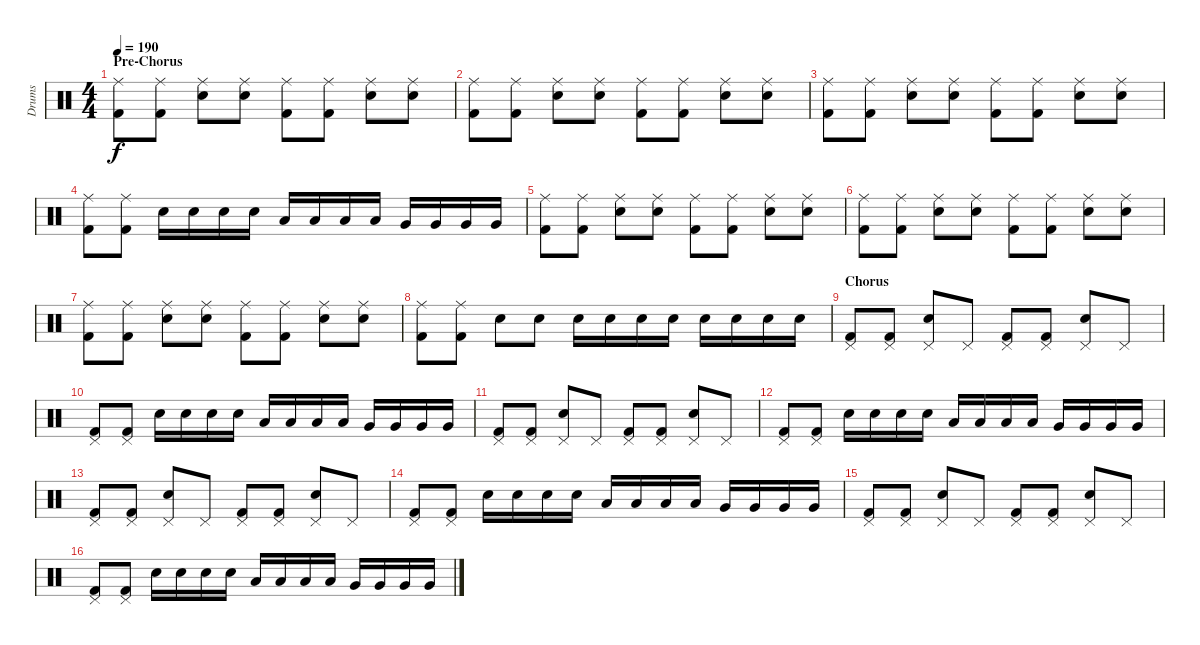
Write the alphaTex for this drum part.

\track ("Drums" "Drums") {instrument percussion}
\staff {score}
\articulation defaults
\ts (4 4)
\section ("" "Pre-Chorus")
\tempo 190
\clef neutral
\ks c
("Kick (hit) 2" "Ride (middle)").8{dy f} ("Kick (hit) 2" "Ride (middle)").8 ("Electric Snare (hit)" "Ride (middle)").8 ("Electric Snare (hit)" "Ride (middle)").8 ("Kick (hit) 2" "Ride (middle)").8 ("Kick (hit) 2" "Ride (middle)").8 ("Electric Snare (hit)" "Ride (middle)").8 ("Electric Snare (hit)" "Ride (middle)").8 |
("Kick (hit) 2" "Ride (middle)").8 ("Kick (hit) 2" "Ride (middle)").8 ("Electric Snare (hit)" "Ride (middle)").8 ("Electric Snare (hit)" "Ride (middle)").8 ("Kick (hit) 2" "Ride (middle)").8 ("Kick (hit) 2" "Ride (middle)").8 ("Electric Snare (hit)" "Ride (middle)").8 ("Electric Snare (hit)" "Ride (middle)").8 |
("Kick (hit) 2" "Ride (middle)").8 ("Kick (hit) 2" "Ride (middle)").8 ("Electric Snare (hit)" "Ride (middle)").8 ("Electric Snare (hit)" "Ride (middle)").8 ("Kick (hit) 2" "Ride (middle)").8 ("Kick (hit) 2" "Ride (middle)").8 ("Electric Snare (hit)" "Ride (middle)").8 ("Electric Snare (hit)" "Ride (middle)").8 |
("Kick (hit) 2" "Ride (middle)").8 ("Kick (hit) 2" "Ride (middle)").8 "Electric Snare (hit)".16 "Electric Snare (hit)".16 "Electric Snare (hit)".16 "Electric Snare (hit)".16 "Low Floor Tom (hit)".16 "Low Floor Tom (hit)".16 "Low Floor Tom (hit)".16 "Low Floor Tom (hit)".16 "Very Low Tom (hit)".16 "Very Low Tom (hit)".16 "Very Low Tom (hit)".16 "Very Low Tom (hit)".16 |
("Kick (hit) 2" "Ride (middle)").8 ("Kick (hit) 2" "Ride (middle)").8 ("Electric Snare (hit)" "Ride (middle)").8 ("Electric Snare (hit)" "Ride (middle)").8 ("Kick (hit) 2" "Ride (middle)").8 ("Kick (hit) 2" "Ride (middle)").8 ("Electric Snare (hit)" "Ride (middle)").8 ("Electric Snare (hit)" "Ride (middle)").8 |
("Kick (hit) 2" "Ride (middle)").8 ("Kick (hit) 2" "Ride (middle)").8 ("Electric Snare (hit)" "Ride (middle)").8 ("Electric Snare (hit)" "Ride (middle)").8 ("Kick (hit) 2" "Ride (middle)").8 ("Kick (hit) 2" "Ride (middle)").8 ("Electric Snare (hit)" "Ride (middle)").8 ("Electric Snare (hit)" "Ride (middle)").8 |
("Kick (hit) 2" "Ride (middle)").8 ("Kick (hit) 2" "Ride (middle)").8 ("Electric Snare (hit)" "Ride (middle)").8 ("Electric Snare (hit)" "Ride (middle)").8 ("Kick (hit) 2" "Ride (middle)").8 ("Kick (hit) 2" "Ride (middle)").8 ("Electric Snare (hit)" "Ride (middle)").8 ("Electric Snare (hit)" "Ride (middle)").8 |
("Kick (hit) 2" "Ride (middle)").8 ("Kick (hit) 2" "Ride (middle)").8 "Electric Snare (hit)".8 "Electric Snare (hit)".8 "Electric Snare (hit)".16 "Electric Snare (hit)".16 "Electric Snare (hit)".16 "Electric Snare (hit)".16 "Electric Snare (hit)".16 "Electric Snare (hit)".16 "Electric Snare (hit)".16 "Electric Snare (hit)".16 |
\section ("" "Chorus")
("Kick (hit) 2" "Pedal Hi-Hat (hit)").8 ("Kick (hit) 2" "Pedal Hi-Hat (hit)").8 ("Electric Snare (hit)" "Pedal Hi-Hat (hit)").8 "Pedal Hi-Hat (hit)".8 ("Kick (hit) 2" "Pedal Hi-Hat (hit)").8 ("Kick (hit) 2" "Pedal Hi-Hat (hit)").8 ("Electric Snare (hit)" "Pedal Hi-Hat (hit)").8 "Pedal Hi-Hat (hit)".8 |
("Kick (hit) 2" "Pedal Hi-Hat (hit)").8 ("Kick (hit) 2" "Pedal Hi-Hat (hit)").8 "Electric Snare (hit)".16 "Electric Snare (hit)".16 "Electric Snare (hit)".16 "Electric Snare (hit)".16 "Low Floor Tom (hit)".16 "Low Floor Tom (hit)".16 "Low Floor Tom (hit)".16 "Low Floor Tom (hit)".16 "Very Low Tom (hit)".16 "Very Low Tom (hit)".16 "Very Low Tom (hit)".16 "Very Low Tom (hit)".16 |
("Kick (hit) 2" "Pedal Hi-Hat (hit)").8 ("Kick (hit) 2" "Pedal Hi-Hat (hit)").8 ("Electric Snare (hit)" "Pedal Hi-Hat (hit)").8 "Pedal Hi-Hat (hit)".8 ("Kick (hit) 2" "Pedal Hi-Hat (hit)").8 ("Kick (hit) 2" "Pedal Hi-Hat (hit)").8 ("Electric Snare (hit)" "Pedal Hi-Hat (hit)").8 "Pedal Hi-Hat (hit)".8 |
("Kick (hit) 2" "Pedal Hi-Hat (hit)").8 ("Kick (hit) 2" "Pedal Hi-Hat (hit)").8 "Electric Snare (hit)".16 "Electric Snare (hit)".16 "Electric Snare (hit)".16 "Electric Snare (hit)".16 "Low Floor Tom (hit)".16 "Low Floor Tom (hit)".16 "Low Floor Tom (hit)".16 "Low Floor Tom (hit)".16 "Very Low Tom (hit)".16 "Very Low Tom (hit)".16 "Very Low Tom (hit)".16 "Very Low Tom (hit)".16 |
("Kick (hit) 2" "Pedal Hi-Hat (hit)").8 ("Kick (hit) 2" "Pedal Hi-Hat (hit)").8 ("Electric Snare (hit)" "Pedal Hi-Hat (hit)").8 "Pedal Hi-Hat (hit)".8 ("Kick (hit) 2" "Pedal Hi-Hat (hit)").8 ("Kick (hit) 2" "Pedal Hi-Hat (hit)").8 ("Electric Snare (hit)" "Pedal Hi-Hat (hit)").8 "Pedal Hi-Hat (hit)".8 |
("Kick (hit) 2" "Pedal Hi-Hat (hit)").8 ("Kick (hit) 2" "Pedal Hi-Hat (hit)").8 "Electric Snare (hit)".16 "Electric Snare (hit)".16 "Electric Snare (hit)".16 "Electric Snare (hit)".16 "Low Floor Tom (hit)".16 "Low Floor Tom (hit)".16 "Low Floor Tom (hit)".16 "Low Floor Tom (hit)".16 "Very Low Tom (hit)".16 "Very Low Tom (hit)".16 "Very Low Tom (hit)".16 "Very Low Tom (hit)".16 |
("Kick (hit) 2" "Pedal Hi-Hat (hit)").8 ("Kick (hit) 2" "Pedal Hi-Hat (hit)").8 ("Electric Snare (hit)" "Pedal Hi-Hat (hit)").8 "Pedal Hi-Hat (hit)".8 ("Kick (hit) 2" "Pedal Hi-Hat (hit)").8 ("Kick (hit) 2" "Pedal Hi-Hat (hit)").8 ("Electric Snare (hit)" "Pedal Hi-Hat (hit)").8 "Pedal Hi-Hat (hit)".8 |
("Kick (hit) 2" "Pedal Hi-Hat (hit)").8 ("Kick (hit) 2" "Pedal Hi-Hat (hit)").8 "Electric Snare (hit)".16 "Electric Snare (hit)".16 "Electric Snare (hit)".16 "Electric Snare (hit)".16 "Low Floor Tom (hit)".16 "Low Floor Tom (hit)".16 "Low Floor Tom (hit)".16 "Low Floor Tom (hit)".16 "Very Low Tom (hit)".16 "Very Low Tom (hit)".16 "Very Low Tom (hit)".16 "Very Low Tom (hit)".16
